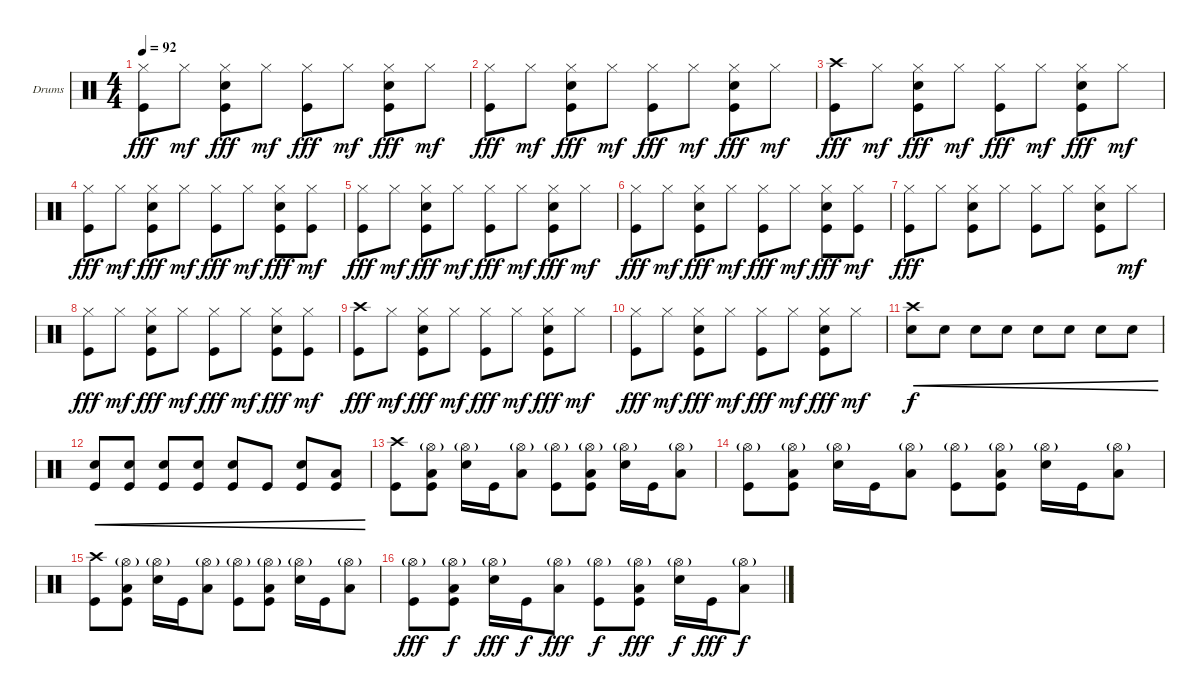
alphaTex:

\defaultSystemsLayout 4
\bracketExtendMode groupsimilarinstruments
\firstSystemTrackNameOrientation horizontal
\otherSystemsTrackNameOrientation horizontal
\track ("Drumkit" "Drums") {instrument percussion}
\staff {score}
\articulation defaults
\ts (4 4)
\tempo 92
\clef neutral
\scale
0.333333
\ks c
("Kick (hit)" "Hi-Hat (closed)").8{dy fff} "Hi-Hat (closed)".8{dy mf} ("Snare (hit) 2" "Kick (hit)" "Hi-Hat (closed)").8{dy fff} "Hi-Hat (closed)".8{dy mf} ("Kick (hit)" "Hi-Hat (closed)").8{dy fff} "Hi-Hat (closed)".8{dy mf} ("Snare (hit) 2" "Kick (hit)" "Hi-Hat (closed)").8{dy fff} "Hi-Hat (closed)".8{dy mf} |
\scale
0.333333 ("Kick (hit)" "Hi-Hat (closed)").8{dy fff} "Hi-Hat (closed)".8{dy mf} ("Snare (hit) 2" "Kick (hit)" "Hi-Hat (closed)").8{dy fff} "Hi-Hat (closed)".8{dy mf} ("Kick (hit)" "Hi-Hat (closed)").8{dy fff} "Hi-Hat (closed)".8{dy mf} ("Snare (hit) 2" "Kick (hit)" "Hi-Hat (closed)").8{dy fff} "Hi-Hat (closed)".8{dy mf} |
\scale
0.333333 ("Crash high (hit)" "Kick (hit)").8{dy fff} "Hi-Hat (closed)".8{dy mf} ("Snare (hit) 2" "Kick (hit)" "Hi-Hat (closed)").8{dy fff} "Hi-Hat (closed)".8{dy mf} ("Kick (hit)" "Hi-Hat (closed)").8{dy fff} "Hi-Hat (closed)".8{dy mf} ("Snare (hit) 2" "Kick (hit)" "Hi-Hat (closed)").8{dy fff} "Hi-Hat (closed)".8{dy mf} |
\scale
0.333333 ("Kick (hit)" "Hi-Hat (closed)").8{dy fff} "Hi-Hat (closed)".8{dy mf} ("Snare (hit) 2" "Kick (hit)" "Hi-Hat (closed)").8{dy fff} "Hi-Hat (closed)".8{dy mf} ("Kick (hit)" "Hi-Hat (closed)").8{dy fff} "Hi-Hat (closed)".8{dy mf} ("Snare (hit) 2" "Kick (hit)" "Hi-Hat (closed)").8{dy fff} ("Hi-Hat (closed)" "Kick (hit)").8{dy mf} |
\scale
0.333333 ("Kick (hit)" "Hi-Hat (closed)").8{dy fff} "Hi-Hat (closed)".8{dy mf} ("Snare (hit) 2" "Kick (hit)" "Hi-Hat (closed)").8{dy fff} "Hi-Hat (closed)".8{dy mf} ("Kick (hit)" "Hi-Hat (closed)").8{dy fff} "Hi-Hat (closed)".8{dy mf} ("Snare (hit) 2" "Kick (hit)" "Hi-Hat (closed)").8{dy fff} "Hi-Hat (closed)".8{dy mf} |
\scale
0.333333 ("Kick (hit)" "Hi-Hat (closed)").8{dy fff} "Hi-Hat (closed)".8{dy mf} ("Snare (hit) 2" "Kick (hit)" "Hi-Hat (closed)").8{dy fff} "Hi-Hat (closed)".8{dy mf} ("Kick (hit)" "Hi-Hat (closed)").8{dy fff} "Hi-Hat (closed)".8{dy mf} ("Snare (hit) 2" "Kick (hit)" "Hi-Hat (closed)").8{dy fff} ("Hi-Hat (closed)" "Kick (hit)").8{dy mf} |
\scale
0.333333 ("Kick (hit)" "Hi-Hat (closed)").8{dy fff} "Hi-Hat (closed)".8 ("Snare (hit) 2" "Kick (hit)" "Hi-Hat (closed)").8 "Hi-Hat (closed)".8 ("Kick (hit)" "Hi-Hat (closed)").8 "Hi-Hat (closed)".8 ("Snare (hit) 2" "Kick (hit)" "Hi-Hat (closed)").8 "Hi-Hat (closed)".8{dy mf} |
\scale
0.333333 ("Kick (hit)" "Hi-Hat (closed)").8{dy fff} "Hi-Hat (closed)".8{dy mf} ("Snare (hit) 2" "Kick (hit)" "Hi-Hat (closed)").8{dy fff} "Hi-Hat (closed)".8{dy mf} ("Kick (hit)" "Hi-Hat (closed)").8{dy fff} "Hi-Hat (closed)".8{dy mf} ("Snare (hit) 2" "Kick (hit)" "Hi-Hat (closed)").8{dy fff} ("Hi-Hat (closed)" "Kick (hit)").8{dy mf} |
\scale
0.333333 ("Kick (hit)" "Crash high (hit)").8{dy fff} "Hi-Hat (closed)".8{dy mf} ("Snare (hit) 2" "Kick (hit)" "Hi-Hat (closed)").8{dy fff} "Hi-Hat (closed)".8{dy mf} ("Kick (hit)" "Hi-Hat (closed)").8{dy fff} "Hi-Hat (closed)".8{dy mf} ("Snare (hit) 2" "Kick (hit)" "Hi-Hat (closed)").8{dy fff} "Hi-Hat (closed)".8{dy mf} |
\scale
0.333333 ("Kick (hit)" "Hi-Hat (closed)").8{dy fff} "Hi-Hat (closed)".8{dy mf} ("Snare (hit) 2" "Kick (hit)" "Hi-Hat (closed)").8{dy fff} "Hi-Hat (closed)".8{dy mf} ("Kick (hit)" "Hi-Hat (closed)").8{dy fff} "Hi-Hat (closed)".8{dy mf} ("Snare (hit) 2" "Kick (hit)" "Hi-Hat (closed)").8{dy fff} "Hi-Hat (closed)".8{dy mf} |
("Snare (hit) 2" "Crash high (hit)").8{cre dy f} "Snare (hit) 2".8{cre} "Snare (hit) 2".8{cre} "Snare (hit) 2".8{cre} "Snare (hit) 2".8{cre} "Snare (hit) 2".8{cre} "Snare (hit) 2".8{cre} "Snare (hit) 2".8{cre} |
("Kick (hit)" "Snare (hit) 2").8{cre} ("Kick (hit)" "Snare (hit) 2").8{cre} ("Snare (hit) 2" "Kick (hit)").8{cre} ("Kick (hit)" "Snare (hit) 2").8{cre} ("Kick (hit)" "Snare (hit) 2").8{cre} "Kick (hit)".8{cre} ("Kick (hit)" "Snare (hit) 2").8{cre} ("Kick (hit)" "Low Tom (hit)").8{cre} |
("Kick (hit)" "Crash high (hit)").8 ("Hi-Hat (open)"{g} "Low Tom (hit)" "Kick (hit)").8 ("Hi-Hat (open)"{g} "Snare (hit) 2").16 "Kick (hit)".16 ("Hi-Hat (open)"{g} "Low Tom (hit)").8 ("Hi-Hat (open)"{g} "Kick (hit)").8 ("Hi-Hat (open)"{g} "Low Tom (hit)" "Kick (hit)").8 ("Hi-Hat (open)"{g} "Snare (hit) 2").16 "Kick (hit)".16 ("Hi-Hat (open)"{g} "Low Tom (hit)").8 |
("Hi-Hat (open)"{g} "Kick (hit)").8 ("Hi-Hat (open)"{g} "Low Tom (hit)" "Kick (hit)").8 ("Hi-Hat (open)"{g} "Snare (hit) 2").16 "Kick (hit)".16 ("Hi-Hat (open)"{g} "Low Tom (hit)").8 ("Hi-Hat (open)"{g} "Kick (hit)").8 ("Hi-Hat (open)"{g} "Low Tom (hit)" "Kick (hit)").8 ("Hi-Hat (open)"{g} "Snare (hit) 2").16 "Kick (hit)".16 ("Hi-Hat (open)"{g} "Low Tom (hit)").8 |
("Kick (hit)" "Crash high (hit)").8 ("Hi-Hat (open)"{g} "Low Tom (hit)" "Kick (hit)").8 ("Hi-Hat (open)"{g} "Snare (hit) 2").16 "Kick (hit)".16 ("Hi-Hat (open)"{g} "Low Tom (hit)").8 ("Hi-Hat (open)"{g} "Kick (hit)").8 ("Hi-Hat (open)"{g} "Low Tom (hit)" "Kick (hit)").8 ("Hi-Hat (open)"{g} "Snare (hit) 2").16 "Kick (hit)".16 ("Hi-Hat (open)"{g} "Low Tom (hit)").8 |
("Hi-Hat (open)"{g} "Kick (hit)").8{dy fff} ("Hi-Hat (open)"{g} "Low Tom (hit)" "Kick (hit)").8{dy f} ("Hi-Hat (open)"{g} "Snare (hit) 2").16{dy fff} "Kick (hit)".16{dy f} ("Hi-Hat (open)"{g} "Low Tom (hit)").8{dy fff} ("Hi-Hat (open)"{g} "Kick (hit)").8{dy f} ("Hi-Hat (open)"{g} "Low Tom (hit)" "Kick (hit)").8{dy fff} ("Hi-Hat (open)"{g} "Snare (hit) 2").16{dy f} "Kick (hit)".16{dy fff} ("Hi-Hat (open)"{g} "Low Tom (hit)").8{dy f}
